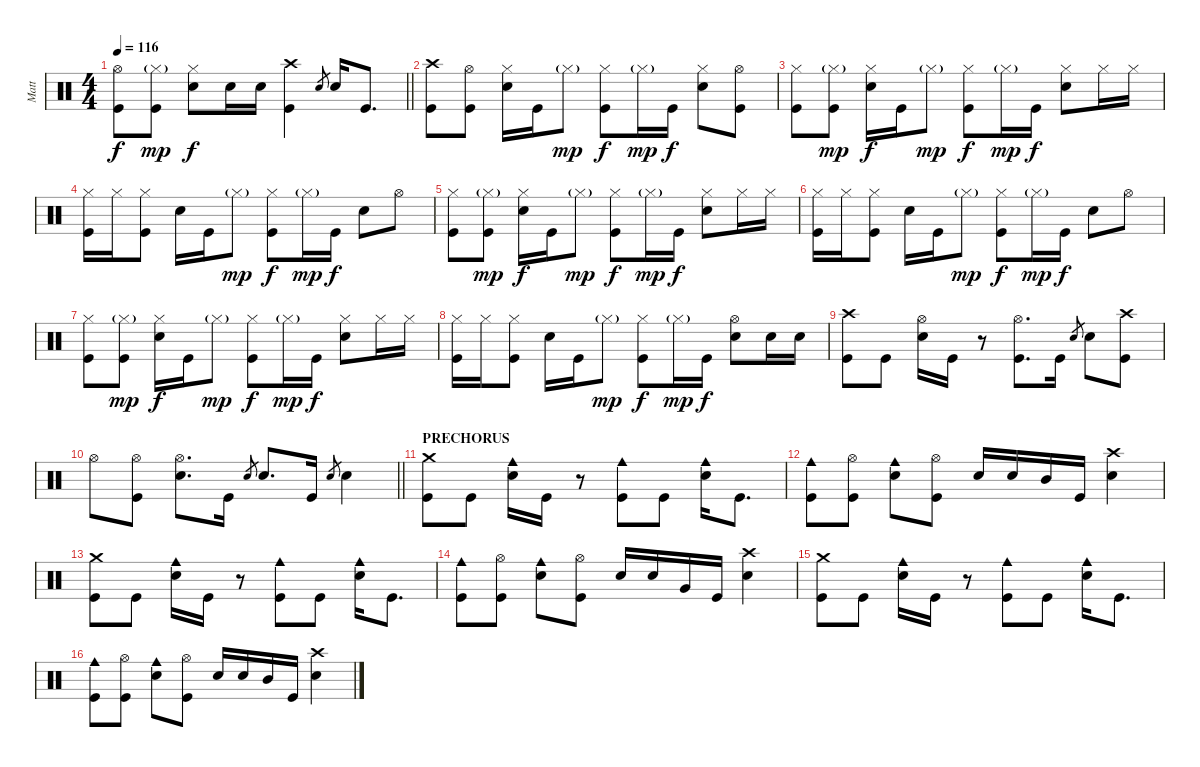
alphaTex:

\track ("Matt" "Matt") {instrument percussion}
\staff {score}
\articulation defaults
\ts (4 4)
\tempo 116
\clef neutral
\barLineRight lightlight
\ks c
("Kick (hit)" "Hi-Hat (open)").8{dy f} ("Kick (hit)" "Hi-Hat (closed)"{g}).8{dy mp} ("Snare (hit) 2" "Hi-Hat (closed)").8{dy f} "Snare (hit) 2".16 "Snare (hit) 2".16 ("Crash high (hit)" "Kick (hit)").4 "Snare (hit) 2".8{gr} "Snare (hit) 2".16 "Kick (hit)".8{d} |
("Crash high (hit)" "Kick (hit)").8 ("Kick (hit)" "Hi-Hat (open)").8 ("Snare (hit) 2" "Hi-Hat (closed)").16 "Kick (hit)".16 "Hi-Hat (closed)"{g}.8{dy mp} ("Kick (hit)" "Hi-Hat (closed)").8{dy f} "Hi-Hat (closed)"{g}.16{dy mp} "Kick (hit)".16{dy f} ("Snare (hit) 2" "Hi-Hat (closed)").8 ("Kick (hit)" "Hi-Hat (open)").8 |
("Kick (hit)" "Hi-Hat (closed)").8 ("Kick (hit)" "Hi-Hat (closed)"{g}).8{dy mp} ("Snare (hit) 2" "Hi-Hat (closed)").16{dy f} "Kick (hit)".16 "Hi-Hat (closed)"{g}.8{dy mp} ("Kick (hit)" "Hi-Hat (closed)").8{dy f} "Hi-Hat (closed)"{g}.16{dy mp} "Kick (hit)".16{dy f} ("Snare (hit) 2" "Hi-Hat (closed)").8 "Hi-Hat (closed)".16 "Hi-Hat (closed)".16 |
("Kick (hit)" "Hi-Hat (closed)").16 "Hi-Hat (closed)".16 ("Kick (hit)" "Hi-Hat (closed)").8 "Snare (hit) 2".16 "Kick (hit)".16 "Hi-Hat (closed)"{g}.8{dy mp} ("Kick (hit)" "Hi-Hat (closed)").8{dy f} "Hi-Hat (closed)"{g}.16{dy mp} "Kick (hit)".16{dy f} "Snare (hit) 2".8 "Hi-Hat (open)".8 |
("Kick (hit)" "Hi-Hat (closed)").8 ("Kick (hit)" "Hi-Hat (closed)"{g}).8{dy mp} ("Snare (hit) 2" "Hi-Hat (closed)").16{dy f} "Kick (hit)".16 "Hi-Hat (closed)"{g}.8{dy mp} ("Kick (hit)" "Hi-Hat (closed)").8{dy f} "Hi-Hat (closed)"{g}.16{dy mp} "Kick (hit)".16{dy f} ("Snare (hit) 2" "Hi-Hat (closed)").8 "Hi-Hat (closed)".16 "Hi-Hat (closed)".16 |
("Kick (hit)" "Hi-Hat (closed)").16 "Hi-Hat (closed)".16 ("Kick (hit)" "Hi-Hat (closed)").8 "Snare (hit) 2".16 "Kick (hit)".16 "Hi-Hat (closed)"{g}.8{dy mp} ("Kick (hit)" "Hi-Hat (closed)").8{dy f} "Hi-Hat (closed)"{g}.16{dy mp} "Kick (hit)".16{dy f} "Snare (hit) 2".8 "Hi-Hat (open)".8 |
("Kick (hit)" "Hi-Hat (closed)").8 ("Kick (hit)" "Hi-Hat (closed)"{g}).8{dy mp} ("Snare (hit) 2" "Hi-Hat (closed)").16{dy f} "Kick (hit)".16 "Hi-Hat (closed)"{g}.8{dy mp} ("Kick (hit)" "Hi-Hat (closed)").8{dy f} "Hi-Hat (closed)"{g}.16{dy mp} "Kick (hit)".16{dy f} ("Snare (hit) 2" "Hi-Hat (closed)").8 "Hi-Hat (closed)".16 "Hi-Hat (closed)".16 |
("Kick (hit)" "Hi-Hat (closed)").16 "Hi-Hat (closed)".16 ("Kick (hit)" "Hi-Hat (closed)").8 "Snare (hit) 2".16 "Kick (hit)".16 "Hi-Hat (closed)"{g}.8{dy mp} ("Kick (hit)" "Hi-Hat (closed)").8{dy f} "Hi-Hat (closed)"{g}.16{dy mp} "Kick (hit)".16{dy f} ("Snare (hit) 2" "Hi-Hat (open)").8 "Snare (hit) 2".16 "Snare (hit) 2".16 |
("Crash high (hit)" "Kick (hit)").8 "Kick (hit)".8 ("Snare (hit) 2" "Hi-Hat (open)").16 "Kick (hit)".16 r.8 ("Kick (hit)" "Hi-Hat (open)").8{d} "Kick (hit)".16 "Snare (hit) 2".8{gr} "Snare (hit) 2".8 ("Crash high (hit)" "Kick (hit)").8 |
\barLineRight lightlight "Hi-Hat (open)".8
("Kick (hit)" "Hi-Hat (open)").8 ("Snare (hit) 2" "Hi-Hat (open)").8{d} "Kick (hit)".16 "Snare (hit) 2".8{gr} "Snare (hit) 2".8{d} "Kick (hit)".16 "Snare (hit) 2".8{gr} "Snare (hit) 2".4 |
\section ("" "PRECHORUS")
("Crash medium (hit)" "Kick (hit)").8 "Kick (hit)".8 ("Snare (hit) 2" "Cowbell medium (hit)").16 "Kick (hit)".16 r.8 ("Kick (hit)" "Cowbell medium (hit)").8 "Kick (hit)".8 ("Snare (hit) 2" "Cowbell medium (hit)").16 "Kick (hit)".8{d} |
("Kick (hit)" "Cowbell medium (hit)").8 ("Kick (hit)" "Hi-Hat (open)").8 ("Snare (hit) 2" "Cowbell medium (hit)").8 ("Kick (hit)" "Hi-Hat (open)").8 "Snare (hit) 2".16 "Snare (hit) 2".16 "Mid Tom (hit)".16 "Kick (hit)".16 ("Crash high (hit)" "Snare (hit) 2").4 |
("Crash medium (hit)" "Kick (hit)").8 "Kick (hit)".8 ("Snare (hit) 2" "Cowbell medium (hit)").16 "Kick (hit)".16 r.8 ("Kick (hit)" "Cowbell medium (hit)").8 "Kick (hit)".8 ("Snare (hit) 2" "Cowbell medium (hit)").16 "Kick (hit)".8{d} |
("Kick (hit)" "Cowbell medium (hit)").8 ("Kick (hit)" "Hi-Hat (open)").8 ("Snare (hit) 2" "Cowbell medium (hit)").8 ("Kick (hit)" "Hi-Hat (open)").8 "Snare (hit) 2".16 "Snare (hit) 2".16 "Very Low Tom (hit)".16 "Kick (hit)".16 ("Crash high (hit)" "Snare (hit) 2").4 |
("Crash medium (hit)" "Kick (hit)").8 "Kick (hit)".8 ("Snare (hit) 2" "Cowbell medium (hit)").16 "Kick (hit)".16 r.8 ("Kick (hit)" "Cowbell medium (hit)").8 "Kick (hit)".8 ("Snare (hit) 2" "Cowbell medium (hit)").16 "Kick (hit)".8{d} |
("Kick (hit)" "Cowbell medium (hit)").8 ("Kick (hit)" "Hi-Hat (open)").8 ("Snare (hit) 2" "Cowbell medium (hit)").8 ("Kick (hit)" "Hi-Hat (open)").8 "Snare (hit) 2".16 "Snare (hit) 2".16 "Mid Tom (hit)".16 "Kick (hit)".16 ("Crash high (hit)" "Snare (hit) 2").4
